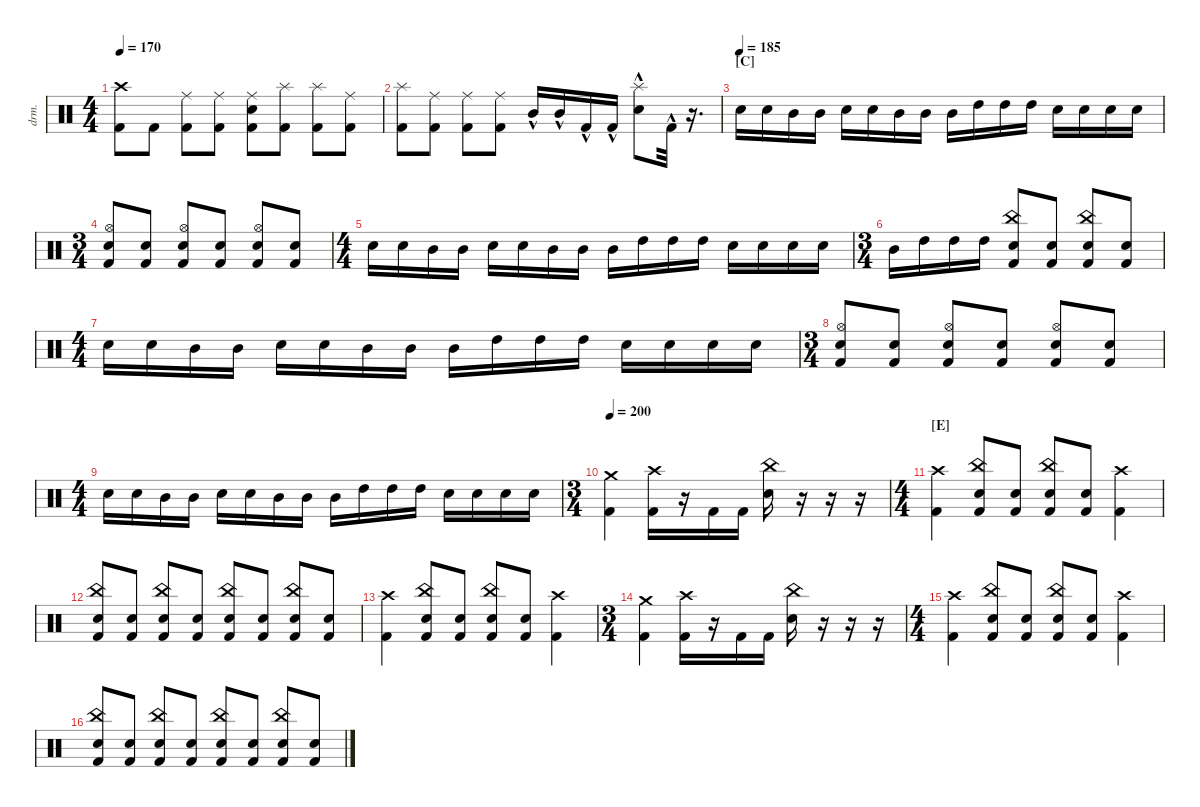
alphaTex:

\defaultSystemsLayout 4
\hideDynamics
\bracketExtendMode nobrackets
\otherSystemsTrackNameOrientation horizontal
\track ("Drumkit" "drm.") {instrument percussion}
\staff {score}
\articulation defaults
\ts (4 4)
\tempo 170
\clef neutral
\ks c
("Kick (hit) 2" "Crash high (hit)").8{dy mf beam Down} "Kick (hit) 2".8{beam Down} ("Ride (middle)" "Kick (hit) 2").8{beam Down} ("Ride (middle)" "Kick (hit) 2").8{beam Down} ("Snare (hit) 2" "Ride (middle)" "Kick (hit) 2").8{beam Down} ("Splash (hit)" "Kick (hit) 2").8{beam Down} ("Splash (hit)" "Kick (hit) 2").8{beam Down} ("Ride (middle)" "Kick (hit) 2").8{beam Down} |
("Kick (hit) 2" "Splash (hit)").8{beam Down} ("Ride (middle)" "Kick (hit) 2").8{beam Down} ("Ride (middle)" "Kick (hit) 2").8{beam Down} ("Ride (middle)" "Kick (hit) 2").8{beam Down} "Mid Tom (hit)"{hac}.16{beam Up} "Mid Tom (hit)"{hac}.16{beam Up} "Kick (hit) 2"{hac}.16{beam Up} "Kick (hit) 2"{hac}.16{beam Up} ("Snare (hit) 2"{hac} "Splash (hit)"{hac}).8{beam Down} "Kick (hit) 2"{hac}.32{beam Down} r.16{d beam Down} |
\section ("C" "")
\tempo (185)
"Snare (hit) 2".16{beam Down} "Snare (hit) 2".16{beam Down} "Mid Tom (hit)".16{beam Down} "Mid Tom (hit)".16{beam Down} "Snare (hit) 2".16{beam Down} "Snare (hit) 2".16{beam Down} "Mid Tom (hit)".16{beam Down} "Mid Tom (hit)".16{beam Down} "Mid Tom (hit)".16{beam Down} "High Tom (hit)".16{beam Down} "High Tom (hit)".16{beam Down} "High Tom (hit)".16{beam Down} "Snare (hit) 2".16{beam Down} "Snare (hit) 2".16{beam Down} "Snare (hit) 2".16{beam Down} "Snare (hit) 2".16{beam Down} |
\ts (3 4)
\beaming (8 2 2 2)
("Kick (hit) 2" "Hi-Hat (open)" "Snare (hit) 2").8{beam Up} ("Snare (hit) 2" "Kick (hit) 2").8{beam Up} ("Kick (hit) 2" "Hi-Hat (open)" "Snare (hit) 2").8{beam Up} ("Snare (hit) 2" "Kick (hit) 2").8{beam Up} ("Kick (hit) 2" "Hi-Hat (open)" "Snare (hit) 2").8{beam Up} ("Snare (hit) 2" "Kick (hit) 2").8{beam Up} |
\ts (4 4)
\beaming (8 2 2 2 2)
"Snare (hit) 2".16{beam Down} "Snare (hit) 2".16{beam Down} "Mid Tom (hit)".16{beam Down} "Mid Tom (hit)".16{beam Down} "Snare (hit) 2".16{beam Down} "Snare (hit) 2".16{beam Down} "Mid Tom (hit)".16{beam Down} "Mid Tom (hit)".16{beam Down} "Mid Tom (hit)".16{beam Down} "High Tom (hit)".16{beam Down} "High Tom (hit)".16{beam Down} "High Tom (hit)".16{beam Down} "Snare (hit) 2".16{beam Down} "Snare (hit) 2".16{beam Down} "Snare (hit) 2".16{beam Down} "Snare (hit) 2".16{beam Down} |
\ts (3 4)
\beaming (8 2 2 2)
"Mid Tom (hit)".16{beam Down} "High Tom (hit)".16{beam Down} "High Tom (hit)".16{beam Down} "High Tom (hit)".16{beam Down} ("Kick (hit) 2" "Snare (hit) 2" "China (hit)").8{beam Up} ("Kick (hit) 2" "Snare (hit) 2").8{beam Up} ("Kick (hit) 2" "Snare (hit) 2" "China (hit)").8{beam Up} ("Kick (hit) 2" "Snare (hit) 2").8{beam Up} |
\ts (4 4)
\beaming (8 2 2 2 2)
"Snare (hit) 2".16{beam Down} "Snare (hit) 2".16{beam Down} "Mid Tom (hit)".16{beam Down} "Mid Tom (hit)".16{beam Down} "Snare (hit) 2".16{beam Down} "Snare (hit) 2".16{beam Down} "Mid Tom (hit)".16{beam Down} "Mid Tom (hit)".16{beam Down} "Mid Tom (hit)".16{beam Down} "High Tom (hit)".16{beam Down} "High Tom (hit)".16{beam Down} "High Tom (hit)".16{beam Down} "Snare (hit) 2".16{beam Down} "Snare (hit) 2".16{beam Down} "Snare (hit) 2".16{beam Down} "Snare (hit) 2".16{beam Down} |
\ts (3 4)
\beaming (8 2 2 2)
("Kick (hit) 2" "Hi-Hat (open)" "Snare (hit) 2").8{beam Up} ("Snare (hit) 2" "Kick (hit) 2").8{beam Up} ("Kick (hit) 2" "Hi-Hat (open)" "Snare (hit) 2").8{beam Up} ("Snare (hit) 2" "Kick (hit) 2").8{beam Up} ("Kick (hit) 2" "Hi-Hat (open)" "Snare (hit) 2").8{beam Up} ("Snare (hit) 2" "Kick (hit) 2").8{beam Up} |
\ts (4 4)
\beaming (8 2 2 2 2)
"Snare (hit) 2".16{beam Down} "Snare (hit) 2".16{beam Down} "Mid Tom (hit)".16{beam Down} "Mid Tom (hit)".16{beam Down} "Snare (hit) 2".16{beam Down} "Snare (hit) 2".16{beam Down} "Mid Tom (hit)".16{beam Down} "Mid Tom (hit)".16{beam Down} "Mid Tom (hit)".16{beam Down} "High Tom (hit)".16{beam Down} "High Tom (hit)".16{beam Down} "High Tom (hit)".16{beam Down} "Snare (hit) 2".16{beam Down} "Snare (hit) 2".16{beam Down} "Snare (hit) 2".16{beam Down} "Snare (hit) 2".16{beam Down} |
\ts (3 4)
\beaming (8 2 2 2)
\tempo 200
("Kick (hit) 2" "Crash medium (hit)").4{beam Down} ("Kick (hit) 2" "Crash high (hit)").16{beam Down} r.16{beam Down} "Kick (hit) 2".16{beam Down} "Kick (hit) 2".16{beam Down} ("Snare (hit) 2" "China (hit)").16{beam Down} r.16{beam Down} r.16{beam Down} r.16{beam Down} |
\ts (4 4)
\beaming (8 2 2 2 2)
\section ("E" "")
("Kick (hit) 2" "Crash high (hit)").4{beam Down} ("Kick (hit) 2" "Snare (hit) 2" "China (hit)").8{beam Up} ("Kick (hit) 2" "Snare (hit) 2").8{beam Up} ("Kick (hit) 2" "Snare (hit) 2" "China (hit)").8{beam Up} ("Kick (hit) 2" "Snare (hit) 2").8{beam Up} ("Kick (hit) 2" "Crash high (hit)").4{beam Down} |
("Kick (hit) 2" "Snare (hit) 2" "China (hit)").8{beam Up} ("Kick (hit) 2" "Snare (hit) 2").8{beam Up} ("Kick (hit) 2" "Snare (hit) 2" "China (hit)").8{beam Up} ("Kick (hit) 2" "Snare (hit) 2").8{beam Up} ("Kick (hit) 2" "Snare (hit) 2" "China (hit)").8{beam Up} ("Kick (hit) 2" "Snare (hit) 2").8{beam Up} ("Kick (hit) 2" "Snare (hit) 2" "China (hit)").8{beam Up} ("Kick (hit) 2" "Snare (hit) 2").8{beam Up} |
("Kick (hit) 2" "Crash high (hit)").4{beam Down} ("Kick (hit) 2" "Snare (hit) 2" "China (hit)").8{beam Up} ("Kick (hit) 2" "Snare (hit) 2").8{beam Up} ("Kick (hit) 2" "Snare (hit) 2" "China (hit)").8{beam Up} ("Kick (hit) 2" "Snare (hit) 2").8{beam Up} ("Kick (hit) 2" "Crash high (hit)").4{beam Down} |
\ts (3 4)
\beaming (8 2 2 2)
("Kick (hit) 2" "Crash medium (hit)").4{beam Down} ("Kick (hit) 2" "Crash high (hit)").16{beam Down} r.16{beam Down} "Kick (hit) 2".16{beam Down} "Kick (hit) 2".16{beam Down} ("Snare (hit) 2" "China (hit)").16{beam Down} r.16{beam Down} r.16{beam Down} r.16{beam Down} |
\ts (4 4)
\beaming (8 2 2 2 2)
("Kick (hit) 2" "Crash high (hit)").4{beam Down} ("Kick (hit) 2" "Snare (hit) 2" "China (hit)").8{beam Up} ("Kick (hit) 2" "Snare (hit) 2").8{beam Up} ("Kick (hit) 2" "Snare (hit) 2" "China (hit)").8{beam Up} ("Kick (hit) 2" "Snare (hit) 2").8{beam Up} ("Kick (hit) 2" "Crash high (hit)").4{beam Down} |
("Kick (hit) 2" "Snare (hit) 2" "China (hit)").8{beam Up} ("Kick (hit) 2" "Snare (hit) 2").8{beam Up} ("Kick (hit) 2" "Snare (hit) 2" "China (hit)").8{beam Up} ("Kick (hit) 2" "Snare (hit) 2").8{beam Up} ("Kick (hit) 2" "Snare (hit) 2" "China (hit)").8{beam Up} ("Kick (hit) 2" "Snare (hit) 2").8{beam Up} ("Kick (hit) 2" "Snare (hit) 2" "China (hit)").8{beam Up} ("Kick (hit) 2" "Snare (hit) 2").8{beam Up}
